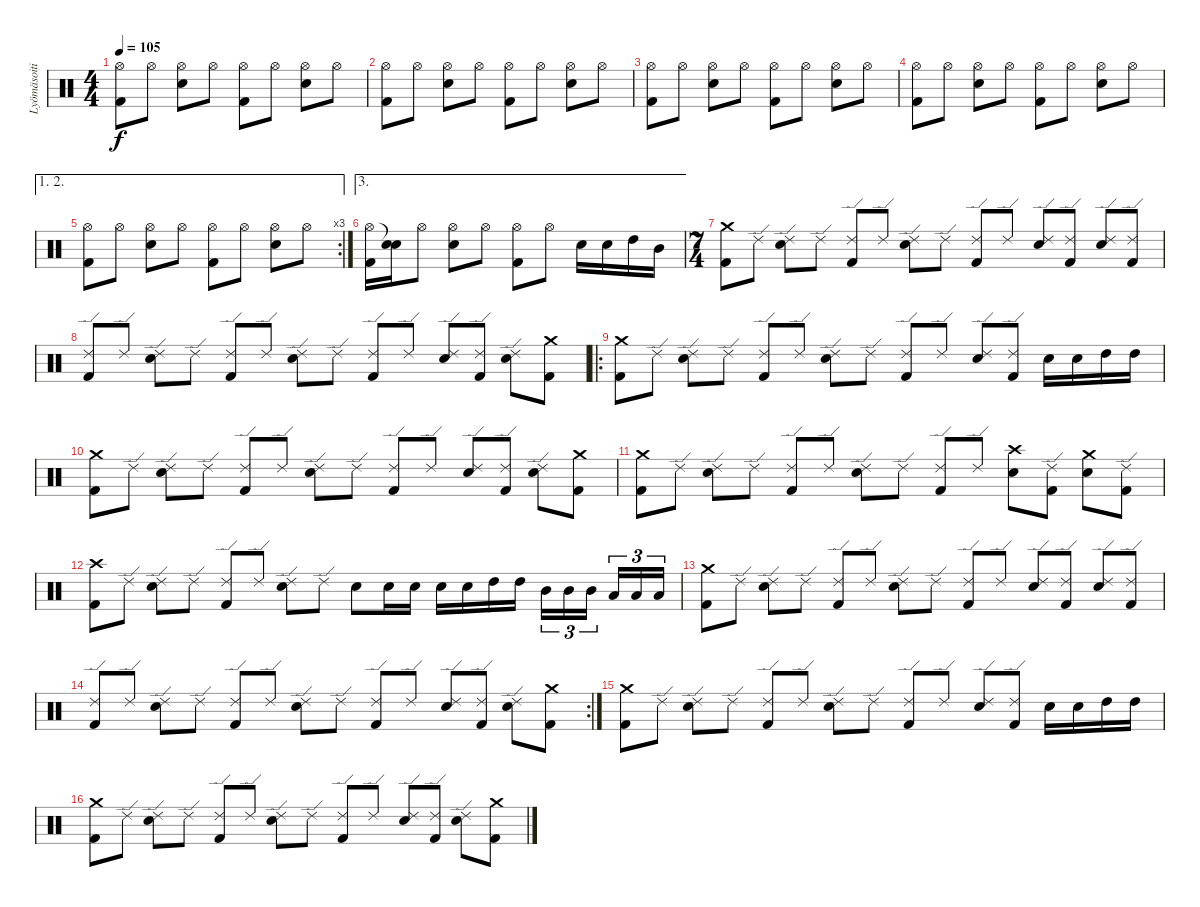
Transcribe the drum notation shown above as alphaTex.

\track ("Lyömäsoitin" "Lyömäsoiti") {instrument percussion}
\staff {score}
\articulation defaults
\ts (4 4)
\tempo 105
\clef neutral
\ks c
("Kick (hit) 2" "Hi-Hat (open)").8{dy f} "Hi-Hat (open)".8 ("Electric Snare (hit)" "Hi-Hat (open)").8 "Hi-Hat (open)".8 ("Kick (hit) 2" "Hi-Hat (open)").8 "Hi-Hat (open)".8 ("Electric Snare (hit)" "Hi-Hat (open)").8 "Hi-Hat (open)".8 |
("Kick (hit) 2" "Hi-Hat (open)").8 "Hi-Hat (open)".8 ("Electric Snare (hit)" "Hi-Hat (open)").8 "Hi-Hat (open)".8 ("Kick (hit) 2" "Hi-Hat (open)").8 "Hi-Hat (open)".8 ("Electric Snare (hit)" "Hi-Hat (open)").8 "Hi-Hat (open)".8 |
("Kick (hit) 2" "Hi-Hat (open)").8 "Hi-Hat (open)".8 ("Electric Snare (hit)" "Hi-Hat (open)").8 "Hi-Hat (open)".8 ("Kick (hit) 2" "Hi-Hat (open)").8 "Hi-Hat (open)".8 ("Electric Snare (hit)" "Hi-Hat (open)").8 "Hi-Hat (open)".8 |
("Kick (hit) 2" "Hi-Hat (open)").8 "Hi-Hat (open)".8 ("Electric Snare (hit)" "Hi-Hat (open)").8 "Hi-Hat (open)".8 ("Kick (hit) 2" "Hi-Hat (open)").8 "Hi-Hat (open)".8 ("Electric Snare (hit)" "Hi-Hat (open)").8 "Hi-Hat (open)".8 |
\ae (1 2)
\rc 3
("Kick (hit) 2" "Hi-Hat (open)").8 "Hi-Hat (open)".8 ("Electric Snare (hit)" "Hi-Hat (open)").8 "Hi-Hat (open)".8 ("Kick (hit) 2" "Hi-Hat (open)").8 "Hi-Hat (open)".8 ("Electric Snare (hit)" "Hi-Hat (open)").8 "Hi-Hat (open)".8 |
\ae 3
("Kick (hit) 2" "Hi-Hat (open)").16 ("Electric Snare (hit)" "Snare (hit)"{t}).16 "Hi-Hat (open)".8 ("Electric Snare (hit)" "Hi-Hat (open)").8 "Hi-Hat (open)".8 ("Kick (hit) 2" "Hi-Hat (open)").8 "Hi-Hat (open)".8 "Electric Snare (hit)".16 "Electric Snare (hit)".16 "High Tom (hit)".16 "Mid Tom (hit)".16 |
\ts (7 4)
("Kick (hit) 2" "Crash medium (hit)").8 "Ride (edge) 2".8 ("Electric Snare (hit)" "Ride (edge) 2").8 "Ride (edge) 2".8 ("Kick (hit) 2" "Ride (edge) 2").8 "Ride (edge) 2".8 ("Electric Snare (hit)" "Ride (edge) 2").8 "Ride (edge) 2".8 ("Kick (hit) 2" "Ride (edge) 2").8 "Ride (edge) 2".8 ("Electric Snare (hit)" "Ride (edge) 2").8 ("Kick (hit) 2" "Ride (edge) 2").8 ("Electric Snare (hit)" "Ride (edge) 2").8 ("Kick (hit) 2" "Ride (edge) 2").8 |
("Kick (hit) 2" "Ride (edge) 2").8 "Ride (edge) 2".8 ("Electric Snare (hit)" "Ride (edge) 2").8 "Ride (edge) 2".8 ("Kick (hit) 2" "Ride (edge) 2").8 "Ride (edge) 2".8 ("Electric Snare (hit)" "Ride (edge) 2").8 "Ride (edge) 2".8 ("Kick (hit) 2" "Ride (edge) 2").8 "Ride (edge) 2".8 ("Electric Snare (hit)" "Ride (edge) 2").8 ("Kick (hit) 2" "Ride (edge) 2").8 ("Electric Snare (hit)" "Ride (edge) 2").8 ("Kick (hit) 2" "Crash medium (hit)").8 |
\ro
("Kick (hit) 2" "Crash medium (hit)").8 "Ride (edge) 2".8 ("Electric Snare (hit)" "Ride (edge) 2").8 "Ride (edge) 2".8 ("Kick (hit) 2" "Ride (edge) 2").8 "Ride (edge) 2".8 ("Electric Snare (hit)" "Ride (edge) 2").8 "Ride (edge) 2".8 ("Kick (hit) 2" "Ride (edge) 2").8 "Ride (edge) 2".8 ("Electric Snare (hit)" "Ride (edge) 2").8 ("Kick (hit) 2" "Ride (edge) 2").8 "Electric Snare (hit)".16 "Electric Snare (hit)".16 "High Tom (hit)".16 "High Tom (hit)".16 |
("Kick (hit) 2" "Crash medium (hit)").8 "Ride (edge) 2".8 ("Electric Snare (hit)" "Ride (edge) 2").8 "Ride (edge) 2".8 ("Kick (hit) 2" "Ride (edge) 2").8 "Ride (edge) 2".8 ("Electric Snare (hit)" "Ride (edge) 2").8 "Ride (edge) 2".8 ("Kick (hit) 2" "Ride (edge) 2").8 "Ride (edge) 2".8 ("Electric Snare (hit)" "Ride (edge) 2").8 ("Kick (hit) 2" "Ride (edge) 2").8 ("Electric Snare (hit)" "Ride (edge) 2").8 ("Kick (hit) 2" "Crash medium (hit)").8 |
("Kick (hit) 2" "Crash medium (hit)").8 "Ride (edge) 2".8 ("Electric Snare (hit)" "Ride (edge) 2").8 "Ride (edge) 2".8 ("Kick (hit) 2" "Ride (edge) 2").8 "Ride (edge) 2".8 ("Electric Snare (hit)" "Ride (edge) 2").8 "Ride (edge) 2".8 ("Kick (hit) 2" "Ride (edge) 2").8 "Ride (edge) 2".8 ("Electric Snare (hit)" "Crash high (hit)").8 ("Kick (hit) 2" "Ride (edge) 2").8 ("Electric Snare (hit)" "Crash medium (hit)").8 ("Kick (hit) 2" "Ride (edge) 2").8 |
("Kick (hit) 2" "Crash high (hit)").8 "Ride (edge) 2".8 ("Electric Snare (hit)" "Ride (edge) 2").8 "Ride (edge) 2".8 ("Kick (hit) 2" "Ride (edge) 2").8 "Ride (edge) 2".8 ("Electric Snare (hit)" "Ride (edge) 2").8 "Ride (edge) 2".8 "Electric Snare (hit)".8 "Electric Snare (hit)".16 "Electric Snare (hit)".16 "Electric Snare (hit)".16 "Electric Snare (hit)".16 "High Tom (hit)".16 "High Tom (hit)".16 "Mid Tom (hit)".16{tu (3 2)} "Mid Tom (hit)".16{tu (3 2)} "Mid Tom (hit)".16{tu (3 2)} "Low Tom (hit)".16{tu (3 2)} "Low Tom (hit)".16{tu (3 2)} "Low Tom (hit)".16{tu (3 2)} |
("Kick (hit) 2" "Crash medium (hit)").8 "Ride (edge) 2".8 ("Electric Snare (hit)" "Ride (edge) 2").8 "Ride (edge) 2".8 ("Kick (hit) 2" "Ride (edge) 2").8 "Ride (edge) 2".8 ("Electric Snare (hit)" "Ride (edge) 2").8 "Ride (edge) 2".8 ("Kick (hit) 2" "Ride (edge) 2").8 "Ride (edge) 2".8 ("Electric Snare (hit)" "Ride (edge) 2").8 ("Kick (hit) 2" "Ride (edge) 2").8 ("Electric Snare (hit)" "Ride (edge) 2").8 ("Kick (hit) 2" "Ride (edge) 2").8 |
\rc 2
("Kick (hit) 2" "Ride (edge) 2").8 "Ride (edge) 2".8 ("Electric Snare (hit)" "Ride (edge) 2").8 "Ride (edge) 2".8 ("Kick (hit) 2" "Ride (edge) 2").8 "Ride (edge) 2".8 ("Electric Snare (hit)" "Ride (edge) 2").8 "Ride (edge) 2".8 ("Kick (hit) 2" "Ride (edge) 2").8 "Ride (edge) 2".8 ("Electric Snare (hit)" "Ride (edge) 2").8 ("Kick (hit) 2" "Ride (edge) 2").8 ("Electric Snare (hit)" "Ride (edge) 2").8 ("Kick (hit) 2" "Crash medium (hit)").8 |
("Kick (hit) 2" "Crash medium (hit)").8{volume 12} "Ride (edge) 2".8 ("Electric Snare (hit)" "Ride (edge) 2").8 "Ride (edge) 2".8 ("Kick (hit) 2" "Ride (edge) 2").8 "Ride (edge) 2".8 ("Electric Snare (hit)" "Ride (edge) 2").8 "Ride (edge) 2".8 ("Kick (hit) 2" "Ride (edge) 2").8 "Ride (edge) 2".8 ("Electric Snare (hit)" "Ride (edge) 2").8 ("Kick (hit) 2" "Ride (edge) 2").8 "Electric Snare (hit)".16 "Electric Snare (hit)".16 "High Tom (hit)".16 "High Tom (hit)".16 |
("Kick (hit) 2" "Crash medium (hit)").8{volume 11} "Ride (edge) 2".8 ("Electric Snare (hit)" "Ride (edge) 2").8 "Ride (edge) 2".8 ("Kick (hit) 2" "Ride (edge) 2").8 "Ride (edge) 2".8 ("Electric Snare (hit)" "Ride (edge) 2").8 "Ride (edge) 2".8 ("Kick (hit) 2" "Ride (edge) 2").8 "Ride (edge) 2".8 ("Electric Snare (hit)" "Ride (edge) 2").8 ("Kick (hit) 2" "Ride (edge) 2").8 ("Electric Snare (hit)" "Ride (edge) 2").8 ("Kick (hit) 2" "Crash medium (hit)").8
